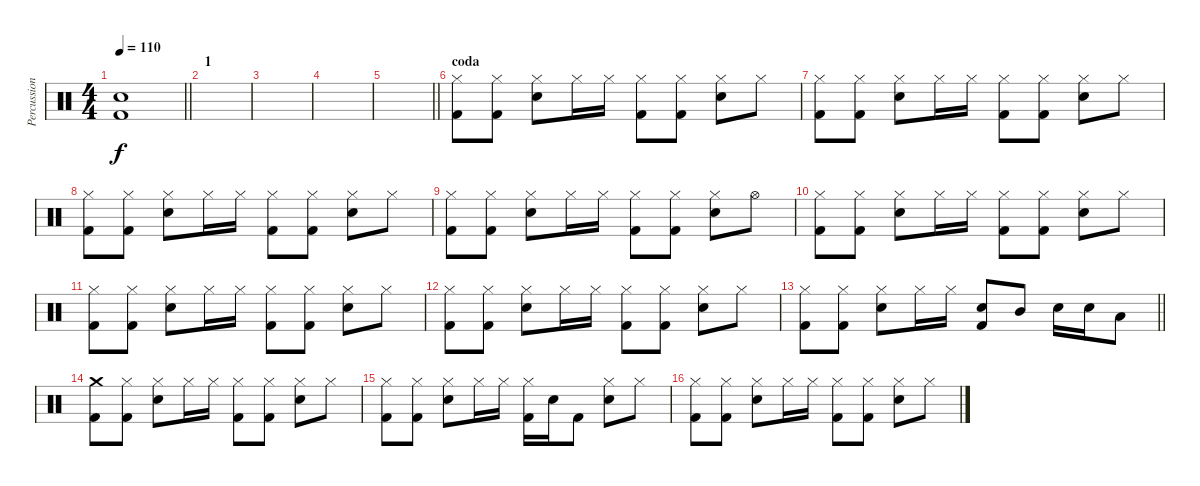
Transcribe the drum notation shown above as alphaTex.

\track ("Percussion" "Percussion") {instrument percussion}
\staff {score}
\articulation defaults
\ts (4 4)
\tempo 110
\clef neutral
\barLineRight lightlight
\ks c
("Kick (hit) 2" "Electric Snare (hit)").1{dy f} |
\section ("" "1")
|
|
|
\barLineRight lightlight
|
\section ("" "coda")
("Kick (hit) 2" "Hi-Hat (closed)").8 ("Kick (hit) 2" "Hi-Hat (closed)").8 ("Electric Snare (hit)" "Hi-Hat (closed)").8 "Hi-Hat (closed)".16 "Hi-Hat (closed)".16 ("Kick (hit) 2" "Hi-Hat (closed)").8 ("Kick (hit) 2" "Hi-Hat (closed)").8 ("Electric Snare (hit)" "Hi-Hat (closed)").8 "Hi-Hat (closed)".8 |
("Kick (hit) 2" "Hi-Hat (closed)").8 ("Kick (hit) 2" "Hi-Hat (closed)").8 ("Electric Snare (hit)" "Hi-Hat (closed)").8 "Hi-Hat (closed)".16 "Hi-Hat (closed)".16 ("Kick (hit) 2" "Hi-Hat (closed)").8 ("Kick (hit) 2" "Hi-Hat (closed)").8 ("Electric Snare (hit)" "Hi-Hat (closed)").8 "Hi-Hat (closed)".8 |
("Kick (hit) 2" "Hi-Hat (closed)").8 ("Kick (hit) 2" "Hi-Hat (closed)").8 ("Electric Snare (hit)" "Hi-Hat (closed)").8 "Hi-Hat (closed)".16 "Hi-Hat (closed)".16 ("Kick (hit) 2" "Hi-Hat (closed)").8 ("Kick (hit) 2" "Hi-Hat (closed)").8 ("Electric Snare (hit)" "Hi-Hat (closed)").8 "Hi-Hat (closed)".8 |
("Kick (hit) 2" "Hi-Hat (closed)").8 ("Kick (hit) 2" "Hi-Hat (closed)").8 ("Electric Snare (hit)" "Hi-Hat (closed)").8 "Hi-Hat (closed)".16 "Hi-Hat (closed)".16 ("Kick (hit) 2" "Hi-Hat (closed)").8 ("Kick (hit) 2" "Hi-Hat (closed)").8 ("Electric Snare (hit)" "Hi-Hat (closed)").8 "Hi-Hat (open)".8 |
("Kick (hit) 2" "Hi-Hat (closed)").8 ("Kick (hit) 2" "Hi-Hat (closed)").8 ("Electric Snare (hit)" "Hi-Hat (closed)").8 "Hi-Hat (closed)".16 "Hi-Hat (closed)".16 ("Kick (hit) 2" "Hi-Hat (closed)").8 ("Kick (hit) 2" "Hi-Hat (closed)").8 ("Electric Snare (hit)" "Hi-Hat (closed)").8 "Hi-Hat (closed)".8 |
("Kick (hit) 2" "Hi-Hat (closed)").8 ("Kick (hit) 2" "Hi-Hat (closed)").8 ("Electric Snare (hit)" "Hi-Hat (closed)").8 "Hi-Hat (closed)".16 "Hi-Hat (closed)".16 ("Kick (hit) 2" "Hi-Hat (closed)").8 ("Kick (hit) 2" "Hi-Hat (closed)").8 ("Electric Snare (hit)" "Hi-Hat (closed)").8 "Hi-Hat (closed)".8 |
("Kick (hit) 2" "Hi-Hat (closed)").8 ("Kick (hit) 2" "Hi-Hat (closed)").8 ("Electric Snare (hit)" "Hi-Hat (closed)").8 "Hi-Hat (closed)".16 "Hi-Hat (closed)".16 ("Kick (hit) 2" "Hi-Hat (closed)").8 ("Kick (hit) 2" "Hi-Hat (closed)").8 ("Electric Snare (hit)" "Hi-Hat (closed)").8 "Hi-Hat (closed)".8 |
\barLineRight lightlight
("Kick (hit) 2" "Hi-Hat (closed)").8 ("Kick (hit) 2" "Hi-Hat (closed)").8 ("Electric Snare (hit)" "Hi-Hat (closed)").8 "Hi-Hat (closed)".16 "Hi-Hat (closed)".16 ("Kick (hit) 2" "Electric Snare (hit)").8 "Mid Tom (hit)".8 "Electric Snare (hit)".16 "Electric Snare (hit)".16 "Low Tom (hit)".8 |
("Kick (hit) 2" "Crash medium (hit)").8 ("Kick (hit) 2" "Hi-Hat (closed)").8 ("Electric Snare (hit)" "Hi-Hat (closed)").8 "Hi-Hat (closed)".16 "Hi-Hat (closed)".16 ("Kick (hit) 2" "Hi-Hat (closed)").8 ("Kick (hit) 2" "Hi-Hat (closed)").8 ("Electric Snare (hit)" "Hi-Hat (closed)").8 "Hi-Hat (closed)".8 |
("Kick (hit) 2" "Hi-Hat (closed)").8 ("Kick (hit) 2" "Hi-Hat (closed)").8 ("Electric Snare (hit)" "Hi-Hat (closed)").8 "Hi-Hat (closed)".16 "Hi-Hat (closed)".16 ("Kick (hit) 2" "Hi-Hat (closed)").16 "Electric Snare (hit)".16 "Kick (hit) 2".8 ("Electric Snare (hit)" "Hi-Hat (closed)").8 "Hi-Hat (closed)".8 |
("Kick (hit) 2" "Hi-Hat (closed)").8 ("Kick (hit) 2" "Hi-Hat (closed)").8 ("Electric Snare (hit)" "Hi-Hat (closed)").8 "Hi-Hat (closed)".16 "Hi-Hat (closed)".16 ("Kick (hit) 2" "Hi-Hat (closed)").8 ("Kick (hit) 2" "Hi-Hat (closed)").8 ("Electric Snare (hit)" "Hi-Hat (closed)").8 "Hi-Hat (closed)".8
